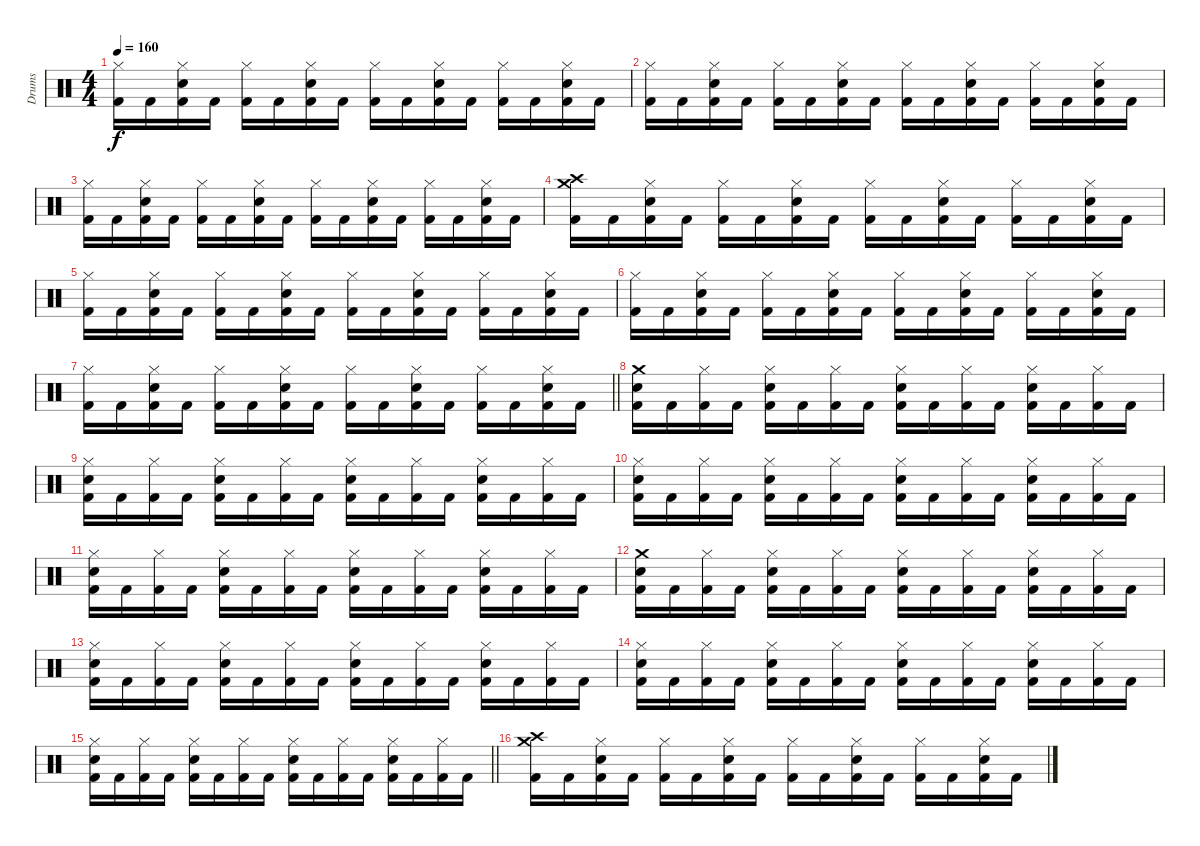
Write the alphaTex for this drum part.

\track ("Drums" "Drums") {instrument percussion}
\staff {score}
\articulation defaults
\ts (4 4)
\tempo 160
\clef neutral
\ks c
("Hi-Hat (closed)" "Kick (hit) 2").16{dy f} "Kick (hit) 2".16 ("Hi-Hat (closed)" "Electric Snare (hit)" "Kick (hit) 2").16 "Kick (hit) 2".16 ("Hi-Hat (closed)" "Kick (hit) 2").16 "Kick (hit) 2".16 ("Hi-Hat (closed)" "Electric Snare (hit)" "Kick (hit) 2").16 "Kick (hit) 2".16 ("Hi-Hat (closed)" "Kick (hit) 2").16 "Kick (hit) 2".16 ("Hi-Hat (closed)" "Electric Snare (hit)" "Kick (hit) 2").16 "Kick (hit) 2".16 ("Hi-Hat (closed)" "Kick (hit) 2").16 "Kick (hit) 2".16 ("Hi-Hat (closed)" "Electric Snare (hit)" "Kick (hit) 2").16 "Kick (hit) 2".16 |
("Hi-Hat (closed)" "Kick (hit) 2").16 "Kick (hit) 2".16 ("Hi-Hat (closed)" "Electric Snare (hit)" "Kick (hit) 2").16 "Kick (hit) 2".16 ("Hi-Hat (closed)" "Kick (hit) 2").16 "Kick (hit) 2".16 ("Hi-Hat (closed)" "Electric Snare (hit)" "Kick (hit) 2").16 "Kick (hit) 2".16 ("Hi-Hat (closed)" "Kick (hit) 2").16 "Kick (hit) 2".16 ("Hi-Hat (closed)" "Electric Snare (hit)" "Kick (hit) 2").16 "Kick (hit) 2".16 ("Hi-Hat (closed)" "Kick (hit) 2").16 "Kick (hit) 2".16 ("Hi-Hat (closed)" "Electric Snare (hit)" "Kick (hit) 2").16 "Kick (hit) 2".16 |
("Hi-Hat (closed)" "Kick (hit) 2").16 "Kick (hit) 2".16 ("Hi-Hat (closed)" "Electric Snare (hit)" "Kick (hit) 2").16 "Kick (hit) 2".16 ("Hi-Hat (closed)" "Kick (hit) 2").16 "Kick (hit) 2".16 ("Hi-Hat (closed)" "Electric Snare (hit)" "Kick (hit) 2").16 "Kick (hit) 2".16 ("Hi-Hat (closed)" "Kick (hit) 2").16 "Kick (hit) 2".16 ("Hi-Hat (closed)" "Electric Snare (hit)" "Kick (hit) 2").16 "Kick (hit) 2".16 ("Hi-Hat (closed)" "Kick (hit) 2").16 "Kick (hit) 2".16 ("Hi-Hat (closed)" "Electric Snare (hit)" "Kick (hit) 2").16 "Kick (hit) 2".16 |
("Crash medium (hit)" "Crash high (hit)" "Kick (hit) 2").16 "Kick (hit) 2".16 ("Hi-Hat (closed)" "Electric Snare (hit)" "Kick (hit) 2").16 "Kick (hit) 2".16 ("Hi-Hat (closed)" "Kick (hit) 2").16 "Kick (hit) 2".16 ("Hi-Hat (closed)" "Electric Snare (hit)" "Kick (hit) 2").16 "Kick (hit) 2".16 ("Hi-Hat (closed)" "Kick (hit) 2").16 "Kick (hit) 2".16 ("Hi-Hat (closed)" "Electric Snare (hit)" "Kick (hit) 2").16 "Kick (hit) 2".16 ("Hi-Hat (closed)" "Kick (hit) 2").16 "Kick (hit) 2".16 ("Hi-Hat (closed)" "Electric Snare (hit)" "Kick (hit) 2").16 "Kick (hit) 2".16 |
("Hi-Hat (closed)" "Kick (hit) 2").16 "Kick (hit) 2".16 ("Hi-Hat (closed)" "Electric Snare (hit)" "Kick (hit) 2").16 "Kick (hit) 2".16 ("Hi-Hat (closed)" "Kick (hit) 2").16 "Kick (hit) 2".16 ("Hi-Hat (closed)" "Electric Snare (hit)" "Kick (hit) 2").16 "Kick (hit) 2".16 ("Hi-Hat (closed)" "Kick (hit) 2").16 "Kick (hit) 2".16 ("Hi-Hat (closed)" "Electric Snare (hit)" "Kick (hit) 2").16 "Kick (hit) 2".16 ("Hi-Hat (closed)" "Kick (hit) 2").16 "Kick (hit) 2".16 ("Hi-Hat (closed)" "Electric Snare (hit)" "Kick (hit) 2").16 "Kick (hit) 2".16 |
("Hi-Hat (closed)" "Kick (hit) 2").16 "Kick (hit) 2".16 ("Hi-Hat (closed)" "Electric Snare (hit)" "Kick (hit) 2").16 "Kick (hit) 2".16 ("Hi-Hat (closed)" "Kick (hit) 2").16 "Kick (hit) 2".16 ("Hi-Hat (closed)" "Electric Snare (hit)" "Kick (hit) 2").16 "Kick (hit) 2".16 ("Hi-Hat (closed)" "Kick (hit) 2").16 "Kick (hit) 2".16 ("Hi-Hat (closed)" "Electric Snare (hit)" "Kick (hit) 2").16 "Kick (hit) 2".16 ("Hi-Hat (closed)" "Kick (hit) 2").16 "Kick (hit) 2".16 ("Hi-Hat (closed)" "Electric Snare (hit)" "Kick (hit) 2").16 "Kick (hit) 2".16 |
\barLineRight lightlight
("Hi-Hat (closed)" "Kick (hit) 2").16 "Kick (hit) 2".16 ("Hi-Hat (closed)" "Electric Snare (hit)" "Kick (hit) 2").16 "Kick (hit) 2".16 ("Hi-Hat (closed)" "Kick (hit) 2").16 "Kick (hit) 2".16 ("Hi-Hat (closed)" "Electric Snare (hit)" "Kick (hit) 2").16 "Kick (hit) 2".16 ("Hi-Hat (closed)" "Kick (hit) 2").16 "Kick (hit) 2".16 ("Hi-Hat (closed)" "Electric Snare (hit)" "Kick (hit) 2").16 "Kick (hit) 2".16 ("Hi-Hat (closed)" "Kick (hit) 2").16 "Kick (hit) 2".16 ("Hi-Hat (closed)" "Electric Snare (hit)" "Kick (hit) 2").16 "Kick (hit) 2".16 |
\section ("" "")
("Crash medium (hit)" "Electric Snare (hit)" "Kick (hit) 2").16 "Kick (hit) 2".16 ("Hi-Hat (closed)" "Kick (hit) 2").16 "Kick (hit) 2".16 ("Hi-Hat (closed)" "Electric Snare (hit)" "Kick (hit) 2").16 "Kick (hit) 2".16 ("Hi-Hat (closed)" "Kick (hit) 2").16 "Kick (hit) 2".16 ("Hi-Hat (closed)" "Electric Snare (hit)" "Kick (hit) 2").16 "Kick (hit) 2".16 ("Hi-Hat (closed)" "Kick (hit) 2").16 "Kick (hit) 2".16 ("Hi-Hat (closed)" "Electric Snare (hit)" "Kick (hit) 2").16 "Kick (hit) 2".16 ("Hi-Hat (closed)" "Kick (hit) 2").16 "Kick (hit) 2".16 |
("Hi-Hat (closed)" "Electric Snare (hit)" "Kick (hit) 2").16 "Kick (hit) 2".16 ("Hi-Hat (closed)" "Kick (hit) 2").16 "Kick (hit) 2".16 ("Hi-Hat (closed)" "Electric Snare (hit)" "Kick (hit) 2").16 "Kick (hit) 2".16 ("Hi-Hat (closed)" "Kick (hit) 2").16 "Kick (hit) 2".16 ("Hi-Hat (closed)" "Electric Snare (hit)" "Kick (hit) 2").16 "Kick (hit) 2".16 ("Hi-Hat (closed)" "Kick (hit) 2").16 "Kick (hit) 2".16 ("Hi-Hat (closed)" "Electric Snare (hit)" "Kick (hit) 2").16 "Kick (hit) 2".16 ("Hi-Hat (closed)" "Kick (hit) 2").16 "Kick (hit) 2".16 |
("Hi-Hat (closed)" "Electric Snare (hit)" "Kick (hit) 2").16 "Kick (hit) 2".16 ("Hi-Hat (closed)" "Kick (hit) 2").16 "Kick (hit) 2".16 ("Hi-Hat (closed)" "Electric Snare (hit)" "Kick (hit) 2").16 "Kick (hit) 2".16 ("Hi-Hat (closed)" "Kick (hit) 2").16 "Kick (hit) 2".16 ("Hi-Hat (closed)" "Electric Snare (hit)" "Kick (hit) 2").16 "Kick (hit) 2".16 ("Hi-Hat (closed)" "Kick (hit) 2").16 "Kick (hit) 2".16 ("Hi-Hat (closed)" "Electric Snare (hit)" "Kick (hit) 2").16 "Kick (hit) 2".16 ("Hi-Hat (closed)" "Kick (hit) 2").16 "Kick (hit) 2".16 |
("Hi-Hat (closed)" "Electric Snare (hit)" "Kick (hit) 2").16 "Kick (hit) 2".16 ("Hi-Hat (closed)" "Kick (hit) 2").16 "Kick (hit) 2".16 ("Hi-Hat (closed)" "Electric Snare (hit)" "Kick (hit) 2").16 "Kick (hit) 2".16 ("Hi-Hat (closed)" "Kick (hit) 2").16 "Kick (hit) 2".16 ("Hi-Hat (closed)" "Electric Snare (hit)" "Kick (hit) 2").16 "Kick (hit) 2".16 ("Hi-Hat (closed)" "Kick (hit) 2").16 "Kick (hit) 2".16 ("Hi-Hat (closed)" "Electric Snare (hit)" "Kick (hit) 2").16 "Kick (hit) 2".16 ("Hi-Hat (closed)" "Kick (hit) 2").16 "Kick (hit) 2".16 |
("Crash medium (hit)" "Electric Snare (hit)" "Kick (hit) 2").16 "Kick (hit) 2".16 ("Hi-Hat (closed)" "Kick (hit) 2").16 "Kick (hit) 2".16 ("Hi-Hat (closed)" "Electric Snare (hit)" "Kick (hit) 2").16 "Kick (hit) 2".16 ("Hi-Hat (closed)" "Kick (hit) 2").16 "Kick (hit) 2".16 ("Hi-Hat (closed)" "Electric Snare (hit)" "Kick (hit) 2").16 "Kick (hit) 2".16 ("Hi-Hat (closed)" "Kick (hit) 2").16 "Kick (hit) 2".16 ("Hi-Hat (closed)" "Electric Snare (hit)" "Kick (hit) 2").16 "Kick (hit) 2".16 ("Hi-Hat (closed)" "Kick (hit) 2").16 "Kick (hit) 2".16 |
("Hi-Hat (closed)" "Electric Snare (hit)" "Kick (hit) 2").16 "Kick (hit) 2".16 ("Hi-Hat (closed)" "Kick (hit) 2").16 "Kick (hit) 2".16 ("Hi-Hat (closed)" "Electric Snare (hit)" "Kick (hit) 2").16 "Kick (hit) 2".16 ("Hi-Hat (closed)" "Kick (hit) 2").16 "Kick (hit) 2".16 ("Hi-Hat (closed)" "Electric Snare (hit)" "Kick (hit) 2").16 "Kick (hit) 2".16 ("Hi-Hat (closed)" "Kick (hit) 2").16 "Kick (hit) 2".16 ("Hi-Hat (closed)" "Electric Snare (hit)" "Kick (hit) 2").16 "Kick (hit) 2".16 ("Hi-Hat (closed)" "Kick (hit) 2").16 "Kick (hit) 2".16 |
("Hi-Hat (closed)" "Electric Snare (hit)" "Kick (hit) 2").16 "Kick (hit) 2".16 ("Hi-Hat (closed)" "Kick (hit) 2").16 "Kick (hit) 2".16 ("Hi-Hat (closed)" "Electric Snare (hit)" "Kick (hit) 2").16 "Kick (hit) 2".16 ("Hi-Hat (closed)" "Kick (hit) 2").16 "Kick (hit) 2".16 ("Hi-Hat (closed)" "Electric Snare (hit)" "Kick (hit) 2").16 "Kick (hit) 2".16 ("Hi-Hat (closed)" "Kick (hit) 2").16 "Kick (hit) 2".16 ("Hi-Hat (closed)" "Electric Snare (hit)" "Kick (hit) 2").16 "Kick (hit) 2".16 ("Hi-Hat (closed)" "Kick (hit) 2").16 "Kick (hit) 2".16 |
\barLineRight lightlight
("Hi-Hat (closed)" "Electric Snare (hit)" "Kick (hit) 2").16 "Kick (hit) 2".16 ("Hi-Hat (closed)" "Kick (hit) 2").16 "Kick (hit) 2".16 ("Hi-Hat (closed)" "Electric Snare (hit)" "Kick (hit) 2").16 "Kick (hit) 2".16 ("Hi-Hat (closed)" "Kick (hit) 2").16 "Kick (hit) 2".16 ("Hi-Hat (closed)" "Electric Snare (hit)" "Kick (hit) 2").16 "Kick (hit) 2".16 ("Hi-Hat (closed)" "Kick (hit) 2").16 "Kick (hit) 2".16 ("Hi-Hat (closed)" "Electric Snare (hit)" "Kick (hit) 2").16 "Kick (hit) 2".16 ("Hi-Hat (closed)" "Kick (hit) 2").16 "Kick (hit) 2".16 |
\section ("" "")
("Crash medium (hit)" "Crash high (hit)" "Kick (hit) 2").16 "Kick (hit) 2".16 ("Hi-Hat (closed)" "Electric Snare (hit)" "Kick (hit) 2").16 "Kick (hit) 2".16 ("Hi-Hat (closed)" "Kick (hit) 2").16 "Kick (hit) 2".16 ("Hi-Hat (closed)" "Electric Snare (hit)" "Kick (hit) 2").16 "Kick (hit) 2".16 ("Hi-Hat (closed)" "Kick (hit) 2").16 "Kick (hit) 2".16 ("Hi-Hat (closed)" "Electric Snare (hit)" "Kick (hit) 2").16 "Kick (hit) 2".16 ("Hi-Hat (closed)" "Kick (hit) 2").16 "Kick (hit) 2".16 ("Hi-Hat (closed)" "Electric Snare (hit)" "Kick (hit) 2").16 "Kick (hit) 2".16
